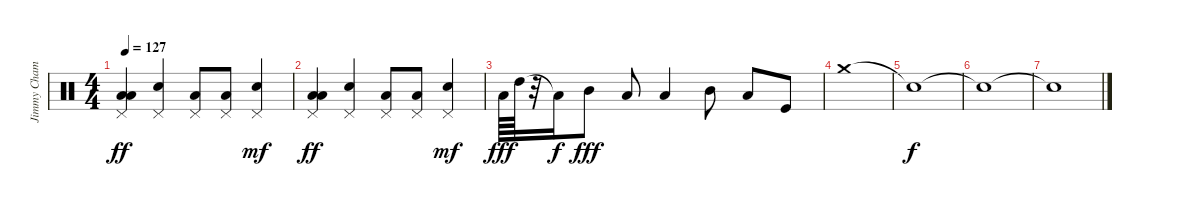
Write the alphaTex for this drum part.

\track ("Jimmy Chamberlin" "Jimmy Cham") {instrument percussion}
\staff {score}
\articulation defaults
\ts (4 4)
\tempo 127
\clef neutral
\ks c
("Low Floor Tom (hit)" "Low Tom (hit)" "Pedal Hi-Hat (hit)").4{dy ff} ("Snare (hit) 2" "Pedal Hi-Hat (hit)").4 ("Low Floor Tom (hit)" "Pedal Hi-Hat (hit)").8 ("Low Floor Tom (hit)" "Pedal Hi-Hat (hit)").8 ("Snare (hit) 2" "Pedal Hi-Hat (hit)").4{dy mf} |
("Low Floor Tom (hit)" "Low Tom (hit)" "Pedal Hi-Hat (hit)").4{dy ff} ("Snare (hit) 2" "Pedal Hi-Hat (hit)").4 ("Low Floor Tom (hit)" "Pedal Hi-Hat (hit)").8 ("Low Floor Tom (hit)" "Pedal Hi-Hat (hit)").8 ("Snare (hit) 2" "Pedal Hi-Hat (hit)").4{dy mf} |
"Low Tom (hit)".64{dy fff} "High Tom (hit)".64 r.32 "Low Floor Tom (hit)"{t}.16{dy f} "Mid Tom (hit)".8{dy fff} "Low Tom (hit)".8 "Low Floor Tom (hit)".4 "Mid Tom (hit)".8 "Low Floor Tom (hit)".8 "Kick (hit)".8 |
"Crash medium (hit)".1 |
"Snare (hit)"{t}.1{dy f} |
"Snare (hit)"{t}.1 |
"Snare (hit)"{t}.1
